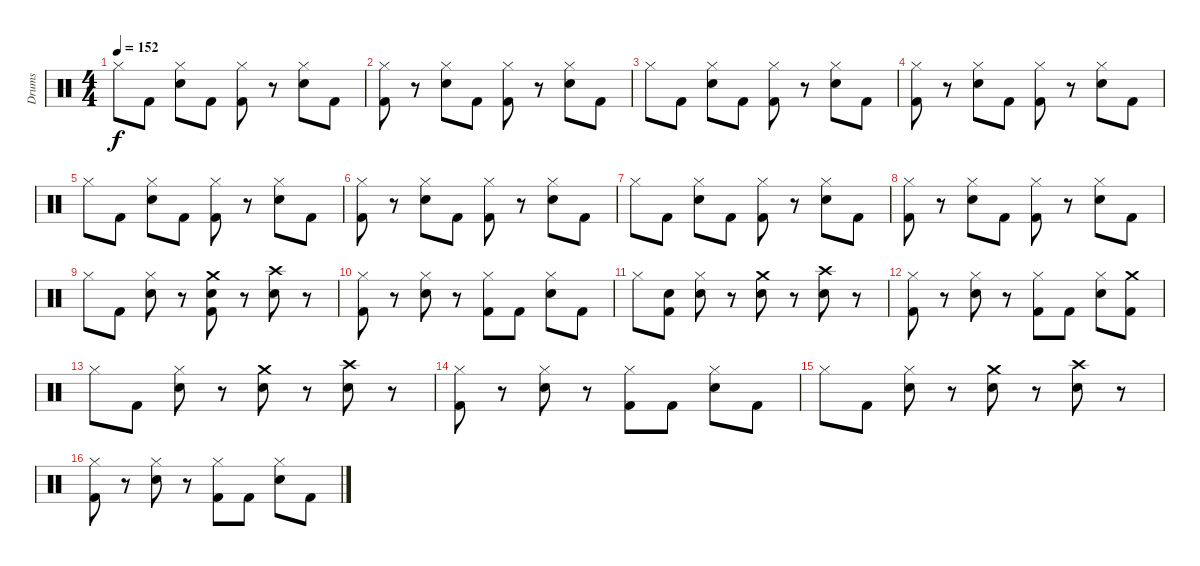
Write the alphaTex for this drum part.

\track ("Drums" "Drums") {instrument percussion}
\staff {score}
\articulation defaults
\ts (4 4)
\tempo 152
\clef neutral
\ks c "Hi-Hat (closed)".8{dy f} "Kick (hit) 2".8
("Electric Snare (hit)" "Hi-Hat (closed)").8 "Kick (hit) 2".8 ("Kick (hit) 2" "Hi-Hat (closed)").8 r.8 ("Electric Snare (hit)" "Hi-Hat (closed)").8 "Kick (hit) 2".8 |
("Kick (hit) 2" "Hi-Hat (closed)").8 r.8 ("Electric Snare (hit)" "Hi-Hat (closed)").8 "Kick (hit) 2".8 ("Kick (hit) 2" "Hi-Hat (closed)").8 r.8 ("Electric Snare (hit)" "Hi-Hat (closed)").8 "Kick (hit) 2".8 |
"Hi-Hat (closed)".8 "Kick (hit) 2".8 ("Electric Snare (hit)" "Hi-Hat (closed)").8 "Kick (hit) 2".8 ("Kick (hit) 2" "Hi-Hat (closed)").8 r.8 ("Electric Snare (hit)" "Hi-Hat (closed)").8 "Kick (hit) 2".8 |
("Kick (hit) 2" "Hi-Hat (closed)").8 r.8 ("Electric Snare (hit)" "Hi-Hat (closed)").8 "Kick (hit) 2".8 ("Kick (hit) 2" "Hi-Hat (closed)").8 r.8 ("Electric Snare (hit)" "Hi-Hat (closed)").8 "Kick (hit) 2".8 |
"Hi-Hat (closed)".8 "Kick (hit) 2".8 ("Electric Snare (hit)" "Hi-Hat (closed)").8 "Kick (hit) 2".8 ("Kick (hit) 2" "Hi-Hat (closed)").8 r.8 ("Electric Snare (hit)" "Hi-Hat (closed)").8 "Kick (hit) 2".8 |
("Kick (hit) 2" "Hi-Hat (closed)").8 r.8 ("Electric Snare (hit)" "Hi-Hat (closed)").8 "Kick (hit) 2".8 ("Kick (hit) 2" "Hi-Hat (closed)").8 r.8 ("Electric Snare (hit)" "Hi-Hat (closed)").8 "Kick (hit) 2".8 |
"Hi-Hat (closed)".8 "Kick (hit) 2".8 ("Electric Snare (hit)" "Hi-Hat (closed)").8 "Kick (hit) 2".8 ("Kick (hit) 2" "Hi-Hat (closed)").8 r.8 ("Electric Snare (hit)" "Hi-Hat (closed)").8 "Kick (hit) 2".8 |
("Kick (hit) 2" "Hi-Hat (closed)").8 r.8 ("Electric Snare (hit)" "Hi-Hat (closed)").8 "Kick (hit) 2".8 ("Kick (hit) 2" "Hi-Hat (closed)").8 r.8 ("Electric Snare (hit)" "Hi-Hat (closed)").8 "Kick (hit) 2".8 |
"Hi-Hat (closed)".8 "Kick (hit) 2".8 ("Electric Snare (hit)" "Hi-Hat (closed)").8 r.8 ("Kick (hit) 2" "Electric Snare (hit)" "Crash medium (hit)").8 r.8 ("Electric Snare (hit)" "Crash high (hit)").8 r.8 |
("Kick (hit) 2" "Hi-Hat (closed)").8 r.8 ("Electric Snare (hit)" "Hi-Hat (closed)").8 r.8 ("Kick (hit) 2" "Hi-Hat (closed)").8 "Kick (hit) 2".8 ("Electric Snare (hit)" "Hi-Hat (closed)").8 "Kick (hit) 2".8 |
"Hi-Hat (closed)".8 ("Kick (hit) 2" "Electric Snare (hit)").8 ("Electric Snare (hit)" "Hi-Hat (closed)").8 r.8 ("Electric Snare (hit)" "Crash medium (hit)").8 r.8 ("Electric Snare (hit)" "Crash high (hit)").8 r.8 |
("Kick (hit) 2" "Hi-Hat (closed)").8 r.8 ("Electric Snare (hit)" "Hi-Hat (closed)").8 r.8 ("Kick (hit) 2" "Hi-Hat (closed)").8 "Kick (hit) 2".8 ("Electric Snare (hit)" "Hi-Hat (closed)").8 ("Kick (hit) 2" "Crash medium (hit)").8 |
"Hi-Hat (closed)".8 "Kick (hit) 2".8 ("Electric Snare (hit)" "Hi-Hat (closed)").8 r.8 ("Electric Snare (hit)" "Crash medium (hit)").8 r.8 ("Electric Snare (hit)" "Crash high (hit)").8 r.8 |
("Kick (hit) 2" "Hi-Hat (closed)").8 r.8 ("Electric Snare (hit)" "Hi-Hat (closed)").8 r.8 ("Kick (hit) 2" "Hi-Hat (closed)").8 "Kick (hit) 2".8 ("Electric Snare (hit)" "Hi-Hat (closed)").8 "Kick (hit) 2".8 |
"Hi-Hat (closed)".8 "Kick (hit) 2".8 ("Electric Snare (hit)" "Hi-Hat (closed)").8 r.8 ("Electric Snare (hit)" "Crash medium (hit)").8 r.8 ("Electric Snare (hit)" "Crash high (hit)").8 r.8 |
("Kick (hit) 2" "Hi-Hat (closed)").8 r.8 ("Electric Snare (hit)" "Hi-Hat (closed)").8 r.8 ("Kick (hit) 2" "Hi-Hat (closed)").8 "Kick (hit) 2".8 ("Electric Snare (hit)" "Hi-Hat (closed)").8 "Kick (hit) 2".8
